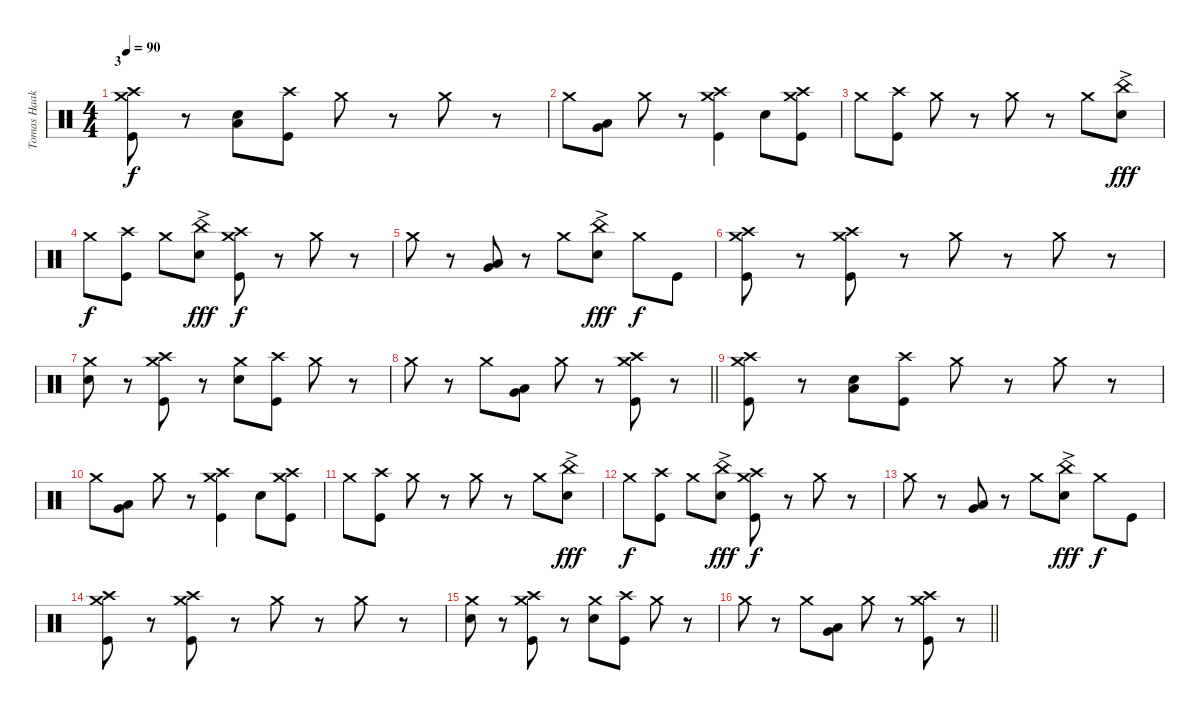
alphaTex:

\track ("Tomas Haake" "Tomas Haak") {instrument percussion}
\staff {score}
\articulation defaults
\ts (4 4)
\section ("" "3")
\tempo 90
\clef neutral
\ks c
("Crash high (hit)" "Crash medium (hit)" "Kick (hit)").8{dy f} r.8 ("Electric Snare (hit)" "Low Floor Tom (hit)").8 ("Crash high (hit)" "Kick (hit)").8 "Crash medium (hit)".8 r.8 "Crash medium (hit)".8 r.8 |
"Crash medium (hit)".8 ("Very Low Tom (hit)" "Low Floor Tom (hit)").8 "Crash medium (hit)".8 r.8 ("Crash high (hit)" "Crash medium (hit)" "Kick (hit)").4 "Electric Snare (hit)".8 ("Crash high (hit)" "Crash medium (hit)" "Kick (hit)").8 |
"Crash medium (hit)".8 ("Crash high (hit)" "Kick (hit)").8 "Crash medium (hit)".8 r.8 "Crash medium (hit)".8 r.8 "Crash medium (hit)".8 ("China (hit)"{ac} "Electric Snare (hit)").8{dy fff} |
"Crash medium (hit)".8{dy f} ("Crash high (hit)" "Kick (hit)").8 "Crash medium (hit)".8 ("China (hit)"{ac} "Electric Snare (hit)").8{dy fff} ("Crash high (hit)" "Crash medium (hit)" "Kick (hit)").8{dy f} r.8 "Crash medium (hit)".8 r.8 |
"Crash medium (hit)".8 r.8 ("Very Low Tom (hit)" "Low Floor Tom (hit)").8 r.8 "Crash medium (hit)".8 ("China (hit)"{ac} "Electric Snare (hit)").8{dy fff} "Crash medium (hit)".8{dy f} "Kick (hit)".8 |
("Crash high (hit)" "Crash medium (hit)" "Kick (hit)").8 r.8 ("Crash high (hit)" "Crash medium (hit)" "Kick (hit)").8 r.8 "Crash medium (hit)".8 r.8 "Crash medium (hit)".8 r.8 |
("Crash medium (hit)" "Snare (hit) 2").8 r.8 ("Crash high (hit)" "Crash medium (hit)" "Kick (hit)").8 r.8 ("Crash medium (hit)" "Electric Snare (hit)").8 ("Crash high (hit)" "Kick (hit)").8 "Crash medium (hit)".8 r.8 |
\barLineRight lightlight "Crash medium (hit)".8
r.8 "Crash medium (hit)".8 ("Very Low Tom (hit)" "Low Floor Tom (hit)").8 "Crash medium (hit)".8 r.8 ("Crash high (hit)" "Crash medium (hit)" "Kick (hit)").8 r.8 |
\section ("" "")
("Crash high (hit)" "Crash medium (hit)" "Kick (hit)").8 r.8 ("Electric Snare (hit)" "Low Floor Tom (hit)").8 ("Crash high (hit)" "Kick (hit)").8 "Crash medium (hit)".8 r.8 "Crash medium (hit)".8 r.8 |
"Crash medium (hit)".8 ("Very Low Tom (hit)" "Low Floor Tom (hit)").8 "Crash medium (hit)".8 r.8 ("Crash high (hit)" "Crash medium (hit)" "Kick (hit)").4 "Electric Snare (hit)".8 ("Crash high (hit)" "Crash medium (hit)" "Kick (hit)").8 |
"Crash medium (hit)".8 ("Crash high (hit)" "Kick (hit)").8 "Crash medium (hit)".8 r.8 "Crash medium (hit)".8 r.8 "Crash medium (hit)".8 ("China (hit)"{ac} "Electric Snare (hit)").8{dy fff} |
"Crash medium (hit)".8{dy f} ("Crash high (hit)" "Kick (hit)").8 "Crash medium (hit)".8 ("China (hit)"{ac} "Electric Snare (hit)").8{dy fff} ("Crash high (hit)" "Crash medium (hit)" "Kick (hit)").8{dy f} r.8 "Crash medium (hit)".8 r.8 |
"Crash medium (hit)".8 r.8 ("Very Low Tom (hit)" "Low Floor Tom (hit)").8 r.8 "Crash medium (hit)".8 ("China (hit)"{ac} "Electric Snare (hit)").8{dy fff} "Crash medium (hit)".8{dy f} "Kick (hit)".8 |
("Crash high (hit)" "Crash medium (hit)" "Kick (hit)").8 r.8 ("Crash high (hit)" "Crash medium (hit)" "Kick (hit)").8 r.8 "Crash medium (hit)".8 r.8 "Crash medium (hit)".8 r.8 |
("Crash medium (hit)" "Snare (hit) 2").8 r.8 ("Crash high (hit)" "Crash medium (hit)" "Kick (hit)").8 r.8 ("Crash medium (hit)" "Electric Snare (hit)").8 ("Crash high (hit)" "Kick (hit)").8 "Crash medium (hit)".8 r.8 |
\barLineRight lightlight "Crash medium (hit)".8
r.8 "Crash medium (hit)".8 ("Very Low Tom (hit)" "Low Floor Tom (hit)").8 "Crash medium (hit)".8 r.8 ("Crash high (hit)" "Crash medium (hit)" "Kick (hit)").8 r.8
